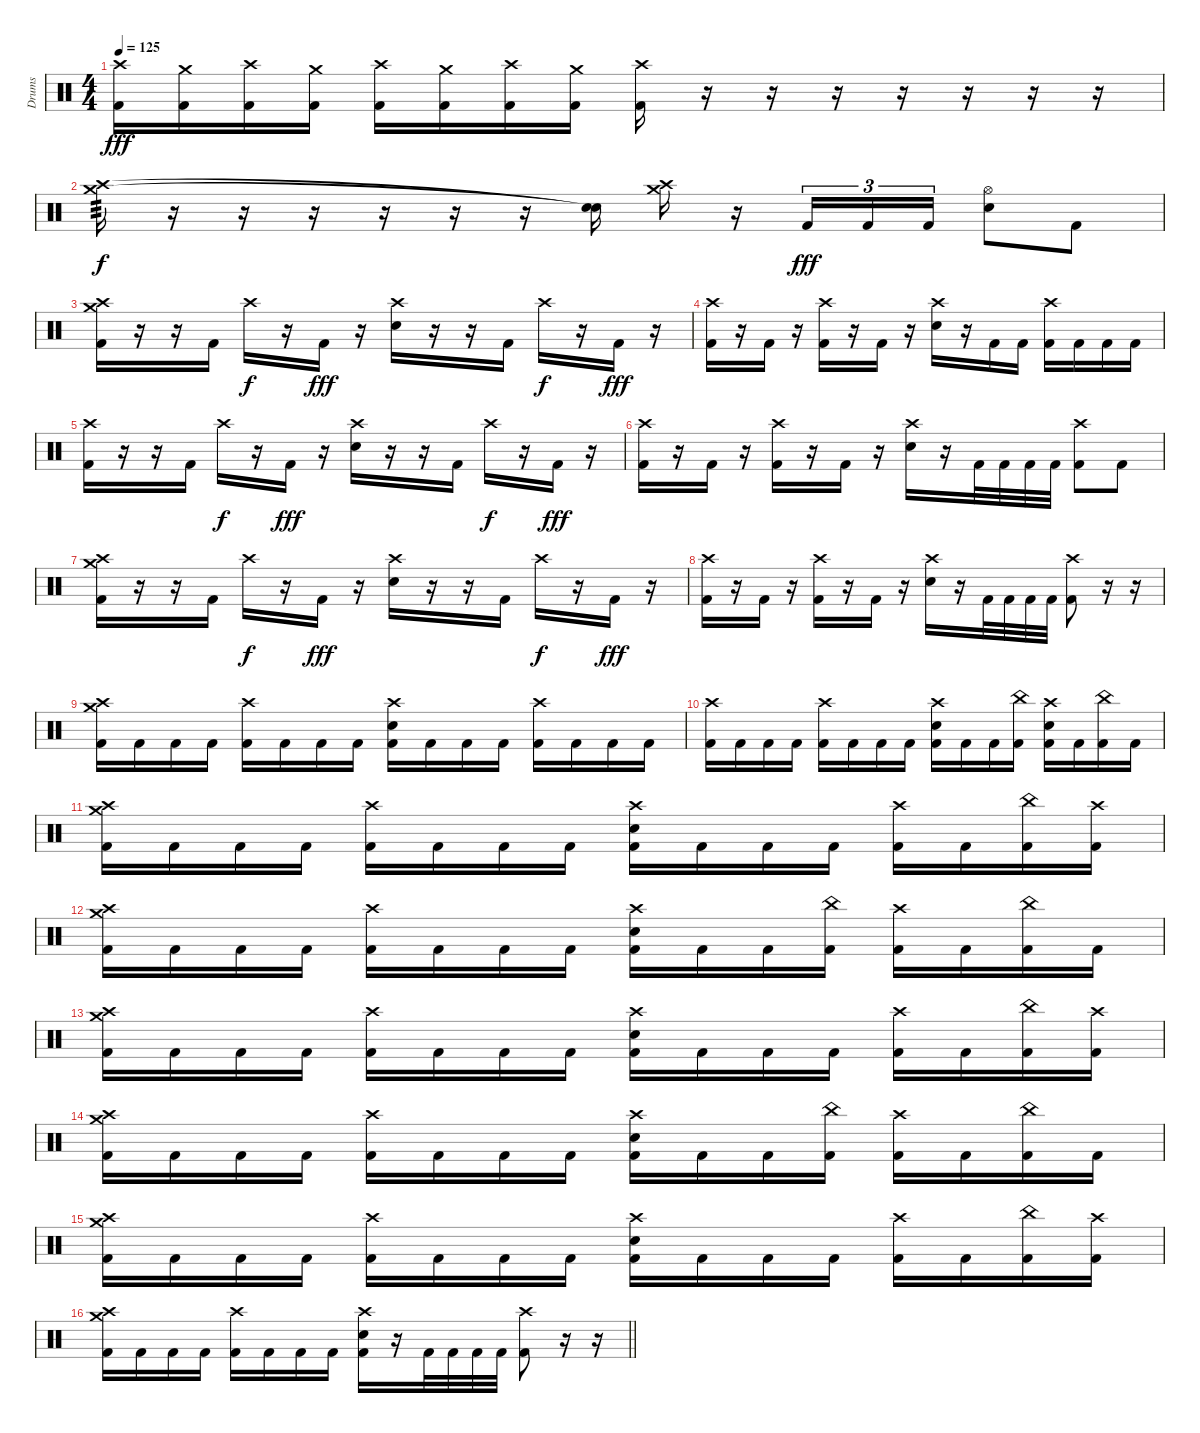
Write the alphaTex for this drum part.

\track ("Drums" "Drums") {instrument percussion}
\staff {score}
\articulation defaults
\ts (4 4)
\section ("" "")
\tempo 125
\clef neutral
\ks c
("Crash high (hit)" "Kick (hit) 2").16{dy fff} ("Crash medium (hit)" "Kick (hit) 2").16 ("Crash high (hit)" "Kick (hit) 2").16 ("Crash medium (hit)" "Kick (hit) 2").16 ("Crash high (hit)" "Kick (hit) 2").16 ("Crash medium (hit)" "Kick (hit) 2").16 ("Crash high (hit)" "Kick (hit) 2").16 ("Crash medium (hit)" "Kick (hit) 2").16 ("Crash high (hit)" "Kick (hit) 2").16 r.16 r.16 r.16 r.16 r.16 r.16 r.16{volume 0} |
("Crash high (hit)" "Crash medium (hit)").16{tp 3 dy f volume 16} r.16 r.16 r.16 r.16 r.16 r.16 ("Snare (hit)"{t} "Snare (hit)"{t}).16 ("Crash high (hit)" "Crash medium (hit)").16 r.16 "Kick (hit) 2".16{tu (3 2) dy fff volume 13} "Kick (hit) 2".16{tu (3 2)} "Kick (hit) 2".16{tu (3 2)} ("Hi-Hat (open)" "Electric Snare (hit)").8 "Kick (hit) 2".8 |
("Crash high (hit)" "Crash medium (hit)" "Kick (hit) 2").16 r.16 r.16 "Kick (hit) 2".16 "Crash high (hit)".16{dy f} r.16 "Kick (hit) 2".16{dy fff} r.16 ("Crash high (hit)" "Electric Snare (hit)").16 r.16 r.16 "Kick (hit) 2".16 "Crash high (hit)".16{dy f} r.16 "Kick (hit) 2".16{dy fff} r.16 |
("Crash high (hit)" "Kick (hit) 2").16 r.16 "Kick (hit) 2".16 r.16 ("Crash high (hit)" "Kick (hit) 2").16 r.16 "Kick (hit) 2".16 r.16 ("Crash high (hit)" "Electric Snare (hit)").16 r.16 "Kick (hit) 2".16 "Kick (hit) 2".16 ("Crash high (hit)" "Kick (hit) 2").16 "Kick (hit) 2".16 "Kick (hit) 2".16 "Kick (hit) 2".16 |
("Crash high (hit)" "Kick (hit) 2").16 r.16 r.16 "Kick (hit) 2".16 "Crash high (hit)".16{dy f} r.16 "Kick (hit) 2".16{dy fff} r.16 ("Crash high (hit)" "Electric Snare (hit)").16 r.16 r.16 "Kick (hit) 2".16 "Crash high (hit)".16{dy f} r.16 "Kick (hit) 2".16{dy fff} r.16 |
("Crash high (hit)" "Kick (hit) 2").16 r.16 "Kick (hit) 2".16 r.16 ("Crash high (hit)" "Kick (hit) 2").16 r.16 "Kick (hit) 2".16 r.16 ("Crash high (hit)" "Electric Snare (hit)").16 r.16 "Kick (hit) 2".32 "Kick (hit) 2".32 "Kick (hit) 2".32 "Kick (hit) 2".32 ("Crash high (hit)" "Kick (hit) 2").8 "Kick (hit) 2".8 |
("Crash high (hit)" "Crash medium (hit)" "Kick (hit) 2").16 r.16 r.16 "Kick (hit) 2".16 "Crash high (hit)".16{dy f} r.16 "Kick (hit) 2".16{dy fff} r.16 ("Crash high (hit)" "Electric Snare (hit)").16 r.16 r.16 "Kick (hit) 2".16 "Crash high (hit)".16{dy f} r.16 "Kick (hit) 2".16{dy fff} r.16 |
("Crash high (hit)" "Kick (hit) 2").16 r.16 "Kick (hit) 2".16 r.16 ("Crash high (hit)" "Kick (hit) 2").16 r.16 "Kick (hit) 2".16 r.16 ("Crash high (hit)" "Electric Snare (hit)").16 r.16 "Kick (hit) 2".32 "Kick (hit) 2".32 "Kick (hit) 2".32 "Kick (hit) 2".32 ("Crash high (hit)" "Kick (hit) 2").8 r.16{volume 0} r.16 |
("Crash high (hit)" "Crash medium (hit)" "Kick (hit) 2").16{volume 13 balance 8} "Kick (hit) 2".16 "Kick (hit) 2".16 "Kick (hit) 2".16 ("Crash high (hit)" "Kick (hit) 2").16 "Kick (hit) 2".16 "Kick (hit) 2".16 "Kick (hit) 2".16 ("Crash high (hit)" "Electric Snare (hit)" "Kick (hit) 2").16 "Kick (hit) 2".16 "Kick (hit) 2".16 "Kick (hit) 2".16 ("Crash high (hit)" "Kick (hit) 2").16 "Kick (hit) 2".16 "Kick (hit) 2".16 "Kick (hit) 2".16 |
("Crash high (hit)" "Kick (hit) 2").16 "Kick (hit) 2".16 "Kick (hit) 2".16 "Kick (hit) 2".16 ("Crash high (hit)" "Kick (hit) 2").16 "Kick (hit) 2".16 "Kick (hit) 2".16 "Kick (hit) 2".16 ("Crash high (hit)" "Electric Snare (hit)" "Kick (hit) 2").16 "Kick (hit) 2".16 "Kick (hit) 2".16 ("China (hit)" "Kick (hit) 2").16 ("Crash high (hit)" "Electric Snare (hit)" "Kick (hit) 2").16 "Kick (hit) 2".16 ("China (hit)" "Kick (hit) 2").16 "Kick (hit) 2".16 |
("Crash high (hit)" "Crash medium (hit)" "Kick (hit) 2").16 "Kick (hit) 2".16 "Kick (hit) 2".16 "Kick (hit) 2".16 ("Crash high (hit)" "Kick (hit) 2").16 "Kick (hit) 2".16 "Kick (hit) 2".16 "Kick (hit) 2".16 ("Crash high (hit)" "Electric Snare (hit)" "Kick (hit) 2").16 "Kick (hit) 2".16 "Kick (hit) 2".16 "Kick (hit) 2".16 ("Crash high (hit)" "Kick (hit) 2").16 "Kick (hit) 2".16 ("China (hit)" "Kick (hit) 2").16 ("Crash high (hit)" "Kick (hit) 2").16 |
("Crash high (hit)" "Crash medium (hit)" "Kick (hit) 2").16 "Kick (hit) 2".16 "Kick (hit) 2".16 "Kick (hit) 2".16 ("Crash high (hit)" "Kick (hit) 2").16 "Kick (hit) 2".16 "Kick (hit) 2".16 "Kick (hit) 2".16 ("Crash high (hit)" "Electric Snare (hit)" "Kick (hit) 2").16 "Kick (hit) 2".16 "Kick (hit) 2".16 ("China (hit)" "Kick (hit) 2").16 ("Crash high (hit)" "Kick (hit) 2").16 "Kick (hit) 2".16 ("China (hit)" "Kick (hit) 2").16 "Kick (hit) 2".16 |
("Crash high (hit)" "Crash medium (hit)" "Kick (hit) 2").16 "Kick (hit) 2".16 "Kick (hit) 2".16 "Kick (hit) 2".16 ("Crash high (hit)" "Kick (hit) 2").16 "Kick (hit) 2".16 "Kick (hit) 2".16 "Kick (hit) 2".16 ("Crash high (hit)" "Electric Snare (hit)" "Kick (hit) 2").16 "Kick (hit) 2".16 "Kick (hit) 2".16 "Kick (hit) 2".16 ("Crash high (hit)" "Kick (hit) 2").16 "Kick (hit) 2".16 ("China (hit)" "Kick (hit) 2").16 ("Crash high (hit)" "Kick (hit) 2").16 |
("Crash high (hit)" "Crash medium (hit)" "Kick (hit) 2").16 "Kick (hit) 2".16 "Kick (hit) 2".16 "Kick (hit) 2".16 ("Crash high (hit)" "Kick (hit) 2").16 "Kick (hit) 2".16 "Kick (hit) 2".16 "Kick (hit) 2".16 ("Crash high (hit)" "Electric Snare (hit)" "Kick (hit) 2").16 "Kick (hit) 2".16 "Kick (hit) 2".16 ("China (hit)" "Kick (hit) 2").16 ("Crash high (hit)" "Kick (hit) 2").16 "Kick (hit) 2".16 ("China (hit)" "Kick (hit) 2").16 "Kick (hit) 2".16 |
("Crash high (hit)" "Crash medium (hit)" "Kick (hit) 2").16 "Kick (hit) 2".16 "Kick (hit) 2".16 "Kick (hit) 2".16 ("Crash high (hit)" "Kick (hit) 2").16 "Kick (hit) 2".16 "Kick (hit) 2".16 "Kick (hit) 2".16 ("Crash high (hit)" "Electric Snare (hit)" "Kick (hit) 2").16 "Kick (hit) 2".16 "Kick (hit) 2".16 "Kick (hit) 2".16 ("Crash high (hit)" "Kick (hit) 2").16 "Kick (hit) 2".16 ("China (hit)" "Kick (hit) 2").16 ("Crash high (hit)" "Kick (hit) 2").16 |
\barLineRight lightlight
("Crash high (hit)" "Crash medium (hit)" "Kick (hit) 2").16 "Kick (hit) 2".16 "Kick (hit) 2".16 "Kick (hit) 2".16 ("Crash high (hit)" "Kick (hit) 2").16 "Kick (hit) 2".16 "Kick (hit) 2".16 "Kick (hit) 2".16 ("Crash high (hit)" "Electric Snare (hit)" "Kick (hit) 2").16 r.16 "Kick (hit) 2".32 "Kick (hit) 2".32 "Kick (hit) 2".32 "Kick (hit) 2".32 ("Crash high (hit)" "Kick (hit) 2").8 r.16{volume 0} r.16
